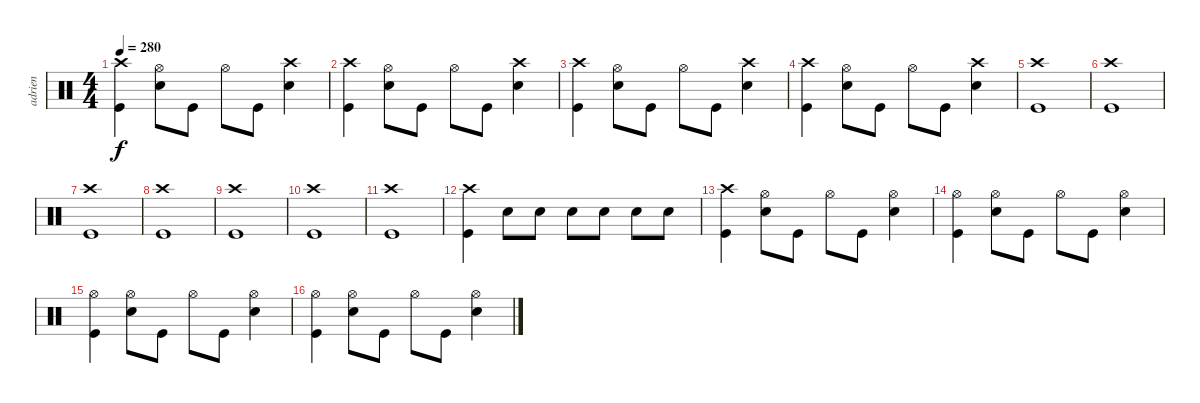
\track ("adrien" "adrien") {instrument percussion}
\staff {score}
\articulation defaults
\ts (4 4)
\tempo 280
\clef neutral
\ks c
("Crash high (hit)" "Kick (hit)").4{dy f} ("Hi-Hat (open)" "Snare (hit) 2").8 "Kick (hit)".8 "Hi-Hat (open)".8 "Kick (hit)".8 ("Crash high (hit)" "Snare (hit) 2").4 |
("Crash high (hit)" "Kick (hit)").4 ("Hi-Hat (open)" "Snare (hit) 2").8 "Kick (hit)".8 "Hi-Hat (open)".8 "Kick (hit)".8 ("Crash high (hit)" "Snare (hit) 2").4 |
("Crash high (hit)" "Kick (hit)").4 ("Hi-Hat (open)" "Snare (hit) 2").8 "Kick (hit)".8 "Hi-Hat (open)".8 "Kick (hit)".8 ("Crash high (hit)" "Snare (hit) 2").4 |
("Crash high (hit)" "Kick (hit)").4 ("Hi-Hat (open)" "Snare (hit) 2").8 "Kick (hit)".8 "Hi-Hat (open)".8 "Kick (hit)".8 ("Crash high (hit)" "Snare (hit) 2").4 |
("Crash high (hit)" "Kick (hit)").1 |
("Crash high (hit)" "Kick (hit)").1 |
("Crash high (hit)" "Kick (hit)").1 |
("Crash high (hit)" "Kick (hit)").1 |
("Crash high (hit)" "Kick (hit)").1 |
("Crash high (hit)" "Kick (hit)").1 |
("Crash high (hit)" "Kick (hit)").1 |
("Crash high (hit)" "Kick (hit)").4 "Snare (hit) 2".8 "Snare (hit) 2".8 "Snare (hit) 2".8 "Snare (hit) 2".8 "Snare (hit) 2".8 "Snare (hit) 2".8 |
("Crash high (hit)" "Kick (hit)").4 ("Hi-Hat (open)" "Snare (hit) 2").8 "Kick (hit)".8 "Hi-Hat (open)".8 "Kick (hit)".8 ("Hi-Hat (open)" "Snare (hit) 2").4 |
("Hi-Hat (open)" "Kick (hit)").4 ("Hi-Hat (open)" "Snare (hit) 2").8 "Kick (hit)".8 "Hi-Hat (open)".8 "Kick (hit)".8 ("Hi-Hat (open)" "Snare (hit) 2").4 |
("Hi-Hat (open)" "Kick (hit)").4 ("Hi-Hat (open)" "Snare (hit) 2").8 "Kick (hit)".8 "Hi-Hat (open)".8 "Kick (hit)".8 ("Hi-Hat (open)" "Snare (hit) 2").4 |
("Hi-Hat (open)" "Kick (hit)").4 ("Hi-Hat (open)" "Snare (hit) 2").8 "Kick (hit)".8 "Hi-Hat (open)".8 "Kick (hit)".8 ("Hi-Hat (open)" "Snare (hit) 2").4
